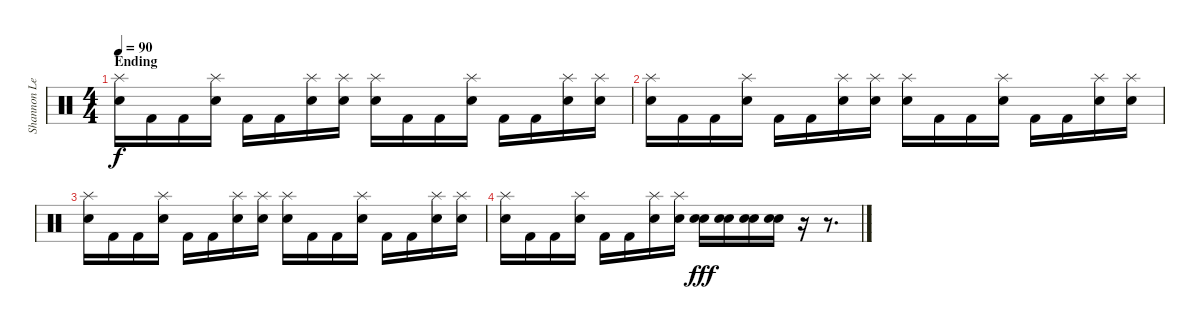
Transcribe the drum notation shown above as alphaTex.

\track ("Shannon Leto - Drums" "Shannon Le") {instrument percussion}
\staff {score}
\articulation defaults
\ts (4 4)
\section ("" "Ending")
\tempo 90
\clef neutral
\ks c
("Splash (hit)" "Electric Snare (hit)").16{dy f} "Kick (hit) 2".16 "Kick (hit) 2".16 ("Splash (hit)" "Electric Snare (hit)").16 "Kick (hit) 2".16 "Kick (hit) 2".16 ("Splash (hit)" "Electric Snare (hit)").16 ("Splash (hit)" "Electric Snare (hit)").16 ("Splash (hit)" "Electric Snare (hit)").16 "Kick (hit) 2".16 "Kick (hit) 2".16 ("Splash (hit)" "Electric Snare (hit)").16 "Kick (hit) 2".16 "Kick (hit) 2".16 ("Splash (hit)" "Electric Snare (hit)").16 ("Splash (hit)" "Electric Snare (hit)").16 |
("Splash (hit)" "Electric Snare (hit)").16 "Kick (hit) 2".16 "Kick (hit) 2".16 ("Splash (hit)" "Electric Snare (hit)").16 "Kick (hit) 2".16 "Kick (hit) 2".16 ("Splash (hit)" "Electric Snare (hit)").16 ("Splash (hit)" "Electric Snare (hit)").16 ("Splash (hit)" "Electric Snare (hit)").16 "Kick (hit) 2".16 "Kick (hit) 2".16 ("Splash (hit)" "Electric Snare (hit)").16 "Kick (hit) 2".16 "Kick (hit) 2".16 ("Splash (hit)" "Electric Snare (hit)").16 ("Splash (hit)" "Electric Snare (hit)").16 |
("Splash (hit)" "Electric Snare (hit)").16 "Kick (hit) 2".16 "Kick (hit) 2".16 ("Splash (hit)" "Electric Snare (hit)").16 "Kick (hit) 2".16 "Kick (hit) 2".16 ("Splash (hit)" "Electric Snare (hit)").16 ("Splash (hit)" "Electric Snare (hit)").16 ("Splash (hit)" "Electric Snare (hit)").16 "Kick (hit) 2".16 "Kick (hit) 2".16 ("Splash (hit)" "Electric Snare (hit)").16 "Kick (hit) 2".16 "Kick (hit) 2".16 ("Splash (hit)" "Electric Snare (hit)").16 ("Splash (hit)" "Electric Snare (hit)").16 |
("Splash (hit)" "Electric Snare (hit)").16 "Kick (hit) 2".16 "Kick (hit) 2".16 ("Splash (hit)" "Electric Snare (hit)").16 "Kick (hit) 2".16 "Kick (hit) 2".16 ("Splash (hit)" "Electric Snare (hit)").16 ("Splash (hit)" "Electric Snare (hit)").16 ("Electric Snare (hit)" "Electric Snare (hit)").16{dy fff} ("Electric Snare (hit)" "Electric Snare (hit)").16 ("Electric Snare (hit)" "Electric Snare (hit)").16 ("Electric Snare (hit)" "Electric Snare (hit)").16 r.16 r.8{d}
